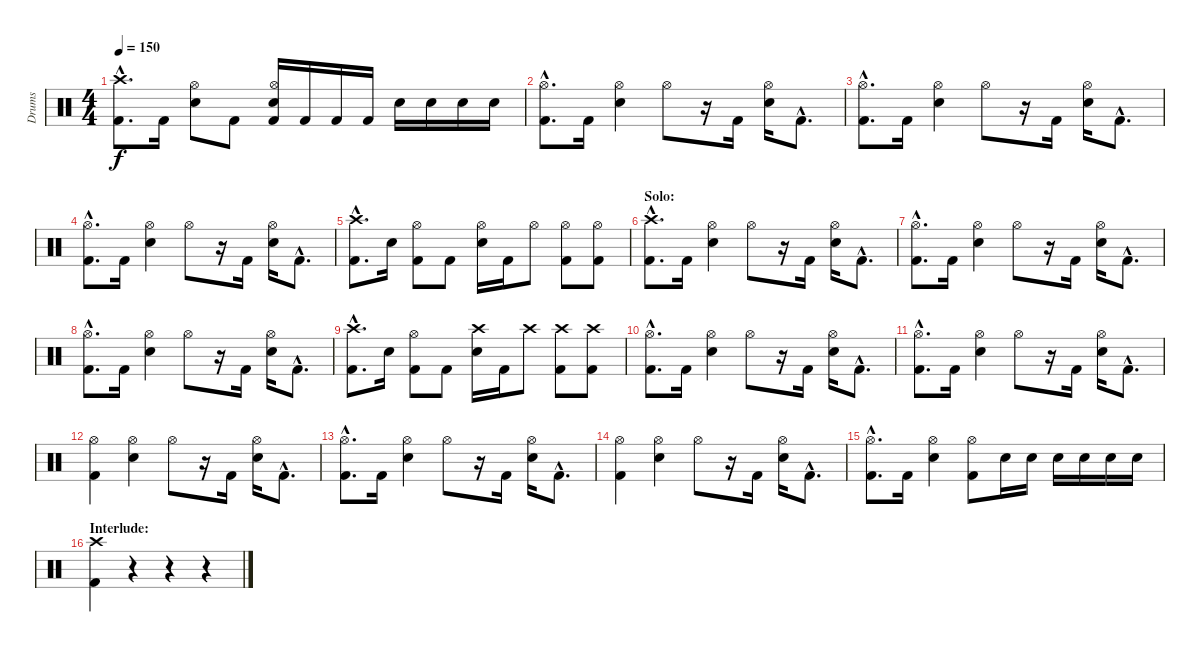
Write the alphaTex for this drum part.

\track ("Drums" "Drums") {instrument percussion}
\staff {score}
\articulation defaults
\ts (4 4)
\tempo 150
\clef neutral
\ks c
("Crash high (hit)"{hac} "Kick (hit) 2"{hac}).8{d dy f} "Kick (hit) 2".16 ("Hi-Hat (open)" "Electric Snare (hit)").8 "Kick (hit) 2".8 ("Hi-Hat (open)" "Electric Snare (hit)" "Kick (hit) 2").16 "Kick (hit) 2".16 "Kick (hit) 2".16 "Kick (hit) 2".16 "Electric Snare (hit)".16 "Electric Snare (hit)".16 "Electric Snare (hit)".16 "Electric Snare (hit)".16 |
("Hi-Hat (open)"{hac} "Kick (hit) 2"{hac}).8{d} "Kick (hit) 2".16 ("Hi-Hat (open)" "Electric Snare (hit)").4 "Hi-Hat (open)".8 r.16 "Kick (hit) 2".16 ("Hi-Hat (open)" "Electric Snare (hit)").16 "Kick (hit) 2"{hac}.8{d} |
("Hi-Hat (open)"{hac} "Kick (hit) 2"{hac}).8{d} "Kick (hit) 2".16 ("Hi-Hat (open)" "Electric Snare (hit)").4 "Hi-Hat (open)".8 r.16 "Kick (hit) 2".16 ("Hi-Hat (open)" "Electric Snare (hit)").16 "Kick (hit) 2"{hac}.8{d} |
("Hi-Hat (open)"{hac} "Kick (hit) 2"{hac}).8{d} "Kick (hit) 2".16 ("Hi-Hat (open)" "Electric Snare (hit)").4 "Hi-Hat (open)".8 r.16 "Kick (hit) 2".16 ("Hi-Hat (open)" "Electric Snare (hit)").16 "Kick (hit) 2"{hac}.8{d} |
("Crash high (hit)"{hac} "Kick (hit) 2").8{d} "Electric Snare (hit)".16 ("Hi-Hat (open)" "Kick (hit) 2").8 "Kick (hit) 2".8 ("Hi-Hat (open)" "Electric Snare (hit)").16 "Kick (hit) 2".16 "Hi-Hat (open)".8 ("Hi-Hat (open)" "Kick (hit) 2").8 ("Hi-Hat (open)" "Kick (hit) 2").8 |
\section ("" "Solo:")
("Crash high (hit)"{hac} "Kick (hit) 2"{hac}).8{d} "Kick (hit) 2".16 ("Hi-Hat (open)" "Electric Snare (hit)").4 "Hi-Hat (open)".8 r.16 "Kick (hit) 2".16 ("Hi-Hat (open)" "Electric Snare (hit)").16 "Kick (hit) 2"{hac}.8{d} |
("Hi-Hat (open)"{hac} "Kick (hit) 2"{hac}).8{d} "Kick (hit) 2".16 ("Hi-Hat (open)" "Electric Snare (hit)").4 "Hi-Hat (open)".8 r.16 "Kick (hit) 2".16 ("Hi-Hat (open)" "Electric Snare (hit)").16 "Kick (hit) 2"{hac}.8{d} |
("Hi-Hat (open)"{hac} "Kick (hit) 2"{hac}).8{d} "Kick (hit) 2".16 ("Hi-Hat (open)" "Electric Snare (hit)").4 "Hi-Hat (open)".8 r.16 "Kick (hit) 2".16 ("Hi-Hat (open)" "Electric Snare (hit)").16 "Kick (hit) 2"{hac}.8{d} |
("Crash high (hit)"{hac} "Kick (hit) 2").8{d} "Electric Snare (hit)".16 ("Hi-Hat (open)" "Kick (hit) 2").8 "Kick (hit) 2".8 ("Crash high (hit)" "Electric Snare (hit)").16 "Kick (hit) 2".16 "Crash high (hit)".8 ("Crash high (hit)" "Kick (hit) 2").8 ("Crash high (hit)" "Kick (hit) 2").8 |
("Hi-Hat (open)"{hac} "Kick (hit) 2"{hac}).8{d} "Kick (hit) 2".16 ("Hi-Hat (open)" "Electric Snare (hit)").4 "Hi-Hat (open)".8 r.16 "Kick (hit) 2".16 ("Hi-Hat (open)" "Electric Snare (hit)").16 "Kick (hit) 2"{hac}.8{d} |
("Hi-Hat (open)"{hac} "Kick (hit) 2"{hac}).8{d} "Kick (hit) 2".16 ("Hi-Hat (open)" "Electric Snare (hit)").4 "Hi-Hat (open)".8 r.16 "Kick (hit) 2".16 ("Hi-Hat (open)" "Electric Snare (hit)").16 "Kick (hit) 2"{hac}.8{d} |
("Hi-Hat (open)" "Kick (hit) 2").4 ("Hi-Hat (open)" "Electric Snare (hit)").4 "Hi-Hat (open)".8 r.16 "Kick (hit) 2".16 ("Hi-Hat (open)" "Electric Snare (hit)").16 "Kick (hit) 2"{hac}.8{d} |
("Hi-Hat (open)"{hac} "Kick (hit) 2"{hac}).8{d} "Kick (hit) 2".16 ("Hi-Hat (open)" "Electric Snare (hit)").4 "Hi-Hat (open)".8 r.16 "Kick (hit) 2".16 ("Hi-Hat (open)" "Electric Snare (hit)").16 "Kick (hit) 2"{hac}.8{d} |
("Hi-Hat (open)" "Kick (hit) 2").4 ("Hi-Hat (open)" "Electric Snare (hit)").4 "Hi-Hat (open)".8 r.16 "Kick (hit) 2".16 ("Hi-Hat (open)" "Electric Snare (hit)").16 "Kick (hit) 2"{hac}.8{d} |
("Hi-Hat (open)"{hac} "Kick (hit) 2"{hac}).8{d} "Kick (hit) 2".16 ("Hi-Hat (open)" "Electric Snare (hit)").4 ("Hi-Hat (open)" "Kick (hit) 2").8 "Electric Snare (hit)".16 "Electric Snare (hit)".16 "Electric Snare (hit)".16 "Electric Snare (hit)".16 "Electric Snare (hit)".16 "Electric Snare (hit)".16 |
\section ("" "Interlude:")
("Crash high (hit)" "Kick (hit) 2").4 r.4 r.4 r.4
